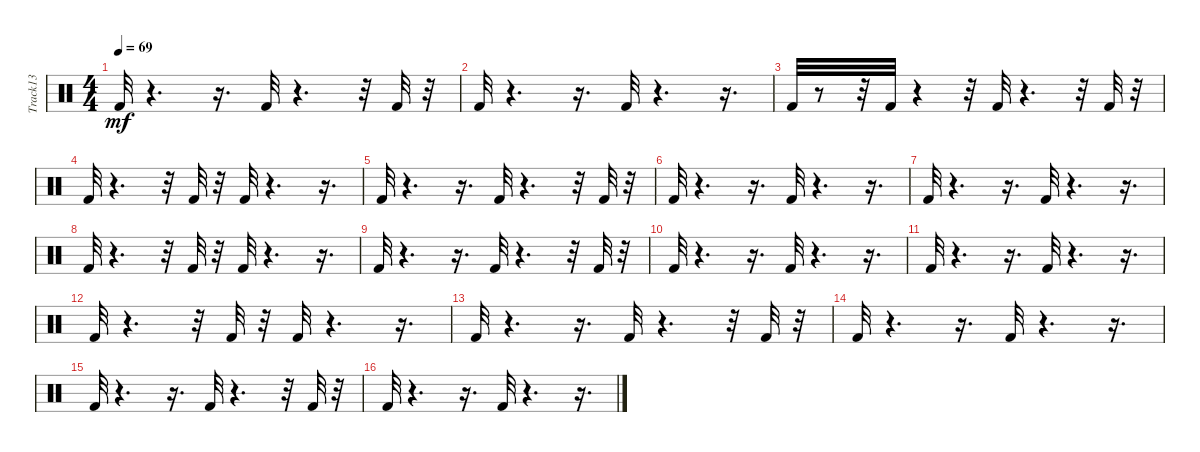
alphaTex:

\track ("Track13" "Track13") {instrument percussion}
\staff {score}
\articulation defaults
\ts (4 4)
\tempo 69
\clef neutral
\ks c "Kick (hit) 2".32{dy mf}
r.4{d} r.16{d} "Kick (hit) 2".32 r.4{d} r.32 "Kick (hit) 2".32 r.32 |
"Kick (hit) 2".32 r.4{d} r.16{d} "Kick (hit) 2".32 r.4{d} r.16{d} |
"Kick (hit) 2".32 r.8 r.32 "Kick (hit) 2".32 r.4 r.32 "Kick (hit) 2".32 r.4{d} r.32 "Kick (hit) 2".32 r.32 |
"Kick (hit) 2".32 r.4{d} r.32 "Kick (hit) 2".32 r.32 "Kick (hit) 2".32 r.4{d} r.16{d} |
"Kick (hit) 2".32 r.4{d} r.16{d} "Kick (hit) 2".32 r.4{d} r.32 "Kick (hit) 2".32 r.32 |
"Kick (hit) 2".32 r.4{d} r.16{d} "Kick (hit) 2".32 r.4{d} r.16{d} |
"Kick (hit) 2".32 r.4{d} r.16{d} "Kick (hit) 2".32 r.4{d} r.16{d} |
"Kick (hit) 2".32 r.4{d} r.32 "Kick (hit) 2".32 r.32 "Kick (hit) 2".32 r.4{d} r.16{d} |
"Kick (hit) 2".32 r.4{d} r.16{d} "Kick (hit) 2".32 r.4{d} r.32 "Kick (hit) 2".32 r.32 |
"Kick (hit) 2".32 r.4{d} r.16{d} "Kick (hit) 2".32 r.4{d} r.16{d} |
"Kick (hit) 2".32 r.4{d} r.16{d} "Kick (hit) 2".32 r.4{d} r.16{d} |
"Kick (hit) 2".32 r.4{d} r.32 "Kick (hit) 2".32 r.32 "Kick (hit) 2".32 r.4{d} r.16{d} |
"Kick (hit) 2".32 r.4{d} r.16{d} "Kick (hit) 2".32 r.4{d} r.32 "Kick (hit) 2".32 r.32 |
"Kick (hit) 2".32 r.4{d} r.16{d} "Kick (hit) 2".32 r.4{d} r.16{d} |
"Kick (hit) 2".32 r.4{d} r.16{d} "Kick (hit) 2".32 r.4{d} r.32 "Kick (hit) 2".32 r.32 |
"Kick (hit) 2".32 r.4{d} r.16{d} "Kick (hit) 2".32 r.4{d} r.16{d}
